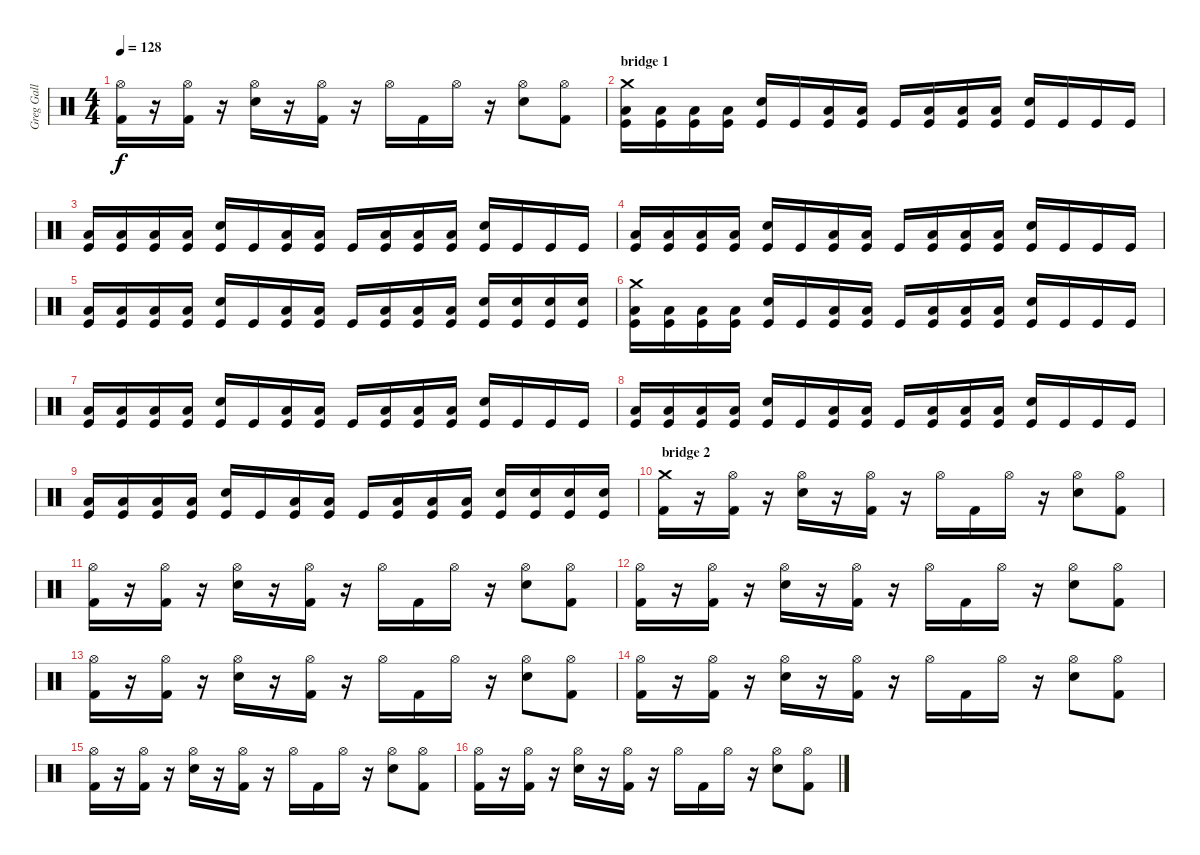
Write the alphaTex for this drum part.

\track ("Greg Gall" "Greg Gall") {instrument percussion}
\staff {score}
\articulation defaults
\ts (4 4)
\tempo 128
\clef neutral
\ks c
("Hi-Hat (open)" "Kick (hit) 2").16{dy f} r.16 ("Hi-Hat (open)" "Kick (hit) 2").16 r.16 ("Hi-Hat (open)" "Electric Snare (hit)").16 r.16 ("Hi-Hat (open)" "Kick (hit) 2").16 r.16 "Hi-Hat (open)".16 "Kick (hit) 2".16 "Hi-Hat (open)".16 r.16 ("Hi-Hat (open)" "Electric Snare (hit)").8 ("Hi-Hat (open)" "Kick (hit) 2").8 |
\section ("" "bridge 1")
("Crash medium (hit)" "Low Tom (hit)" "Kick (hit)").16 ("Low Tom (hit)" "Kick (hit)").16 ("Low Tom (hit)" "Kick (hit)").16 ("Low Tom (hit)" "Kick (hit)").16 ("Electric Snare (hit)" "Kick (hit)").16 "Kick (hit)".16 ("Low Tom (hit)" "Kick (hit)").16 ("Low Tom (hit)" "Kick (hit)").16 "Kick (hit)".16 ("Low Tom (hit)" "Kick (hit)").16 ("Low Tom (hit)" "Kick (hit)").16 ("Low Tom (hit)" "Kick (hit)").16 ("Electric Snare (hit)" "Kick (hit)").16 "Kick (hit)".16 "Kick (hit)".16 "Kick (hit)".16 |
("Low Tom (hit)" "Kick (hit)").16 ("Low Tom (hit)" "Kick (hit)").16 ("Low Tom (hit)" "Kick (hit)").16 ("Low Tom (hit)" "Kick (hit)").16 ("Electric Snare (hit)" "Kick (hit)").16 "Kick (hit)".16 ("Low Tom (hit)" "Kick (hit)").16 ("Low Tom (hit)" "Kick (hit)").16 "Kick (hit)".16 ("Low Tom (hit)" "Kick (hit)").16 ("Low Tom (hit)" "Kick (hit)").16 ("Low Tom (hit)" "Kick (hit)").16 ("Electric Snare (hit)" "Kick (hit)").16 "Kick (hit)".16 "Kick (hit)".16 "Kick (hit)".16 |
("Low Tom (hit)" "Kick (hit)").16 ("Low Tom (hit)" "Kick (hit)").16 ("Low Tom (hit)" "Kick (hit)").16 ("Low Tom (hit)" "Kick (hit)").16 ("Electric Snare (hit)" "Kick (hit)").16 "Kick (hit)".16 ("Low Tom (hit)" "Kick (hit)").16 ("Low Tom (hit)" "Kick (hit)").16 "Kick (hit)".16 ("Low Tom (hit)" "Kick (hit)").16 ("Low Tom (hit)" "Kick (hit)").16 ("Low Tom (hit)" "Kick (hit)").16 ("Electric Snare (hit)" "Kick (hit)").16 "Kick (hit)".16 "Kick (hit)".16 "Kick (hit)".16 |
("Low Tom (hit)" "Kick (hit)").16 ("Low Tom (hit)" "Kick (hit)").16 ("Low Tom (hit)" "Kick (hit)").16 ("Low Tom (hit)" "Kick (hit)").16 ("Electric Snare (hit)" "Kick (hit)").16 "Kick (hit)".16 ("Low Tom (hit)" "Kick (hit)").16 ("Low Tom (hit)" "Kick (hit)").16 "Kick (hit)".16 ("Low Tom (hit)" "Kick (hit)").16 ("Low Tom (hit)" "Kick (hit)").16 ("Low Tom (hit)" "Kick (hit)").16 ("Electric Snare (hit)" "Kick (hit)").16 ("Electric Snare (hit)" "Kick (hit)").16 ("Electric Snare (hit)" "Kick (hit)").16 ("Electric Snare (hit)" "Kick (hit)").16 |
("Crash medium (hit)" "Low Tom (hit)" "Kick (hit)").16 ("Low Tom (hit)" "Kick (hit)").16 ("Low Tom (hit)" "Kick (hit)").16 ("Low Tom (hit)" "Kick (hit)").16 ("Electric Snare (hit)" "Kick (hit)").16 "Kick (hit)".16 ("Low Tom (hit)" "Kick (hit)").16 ("Low Tom (hit)" "Kick (hit)").16 "Kick (hit)".16 ("Low Tom (hit)" "Kick (hit)").16 ("Low Tom (hit)" "Kick (hit)").16 ("Low Tom (hit)" "Kick (hit)").16 ("Electric Snare (hit)" "Kick (hit)").16 "Kick (hit)".16 "Kick (hit)".16 "Kick (hit)".16 |
("Low Tom (hit)" "Kick (hit)").16 ("Low Tom (hit)" "Kick (hit)").16 ("Low Tom (hit)" "Kick (hit)").16 ("Low Tom (hit)" "Kick (hit)").16 ("Electric Snare (hit)" "Kick (hit)").16 "Kick (hit)".16 ("Low Tom (hit)" "Kick (hit)").16 ("Low Tom (hit)" "Kick (hit)").16 "Kick (hit)".16 ("Low Tom (hit)" "Kick (hit)").16 ("Low Tom (hit)" "Kick (hit)").16 ("Low Tom (hit)" "Kick (hit)").16 ("Electric Snare (hit)" "Kick (hit)").16 "Kick (hit)".16 "Kick (hit)".16 "Kick (hit)".16 |
("Low Tom (hit)" "Kick (hit)").16 ("Low Tom (hit)" "Kick (hit)").16 ("Low Tom (hit)" "Kick (hit)").16 ("Low Tom (hit)" "Kick (hit)").16 ("Electric Snare (hit)" "Kick (hit)").16 "Kick (hit)".16 ("Low Tom (hit)" "Kick (hit)").16 ("Low Tom (hit)" "Kick (hit)").16 "Kick (hit)".16 ("Low Tom (hit)" "Kick (hit)").16 ("Low Tom (hit)" "Kick (hit)").16 ("Low Tom (hit)" "Kick (hit)").16 ("Electric Snare (hit)" "Kick (hit)").16 "Kick (hit)".16 "Kick (hit)".16 "Kick (hit)".16 |
("Low Tom (hit)" "Kick (hit)").16 ("Low Tom (hit)" "Kick (hit)").16 ("Low Tom (hit)" "Kick (hit)").16 ("Low Tom (hit)" "Kick (hit)").16 ("Electric Snare (hit)" "Kick (hit)").16 "Kick (hit)".16 ("Low Tom (hit)" "Kick (hit)").16 ("Low Tom (hit)" "Kick (hit)").16 "Kick (hit)".16 ("Low Tom (hit)" "Kick (hit)").16 ("Low Tom (hit)" "Kick (hit)").16 ("Low Tom (hit)" "Kick (hit)").16 ("Electric Snare (hit)" "Kick (hit)").16 ("Electric Snare (hit)" "Kick (hit)").16 ("Electric Snare (hit)" "Kick (hit)").16 ("Electric Snare (hit)" "Kick (hit)").16 |
\section ("" " bridge 2")
("Crash medium (hit)" "Kick (hit) 2").16 r.16 ("Hi-Hat (open)" "Kick (hit) 2").16 r.16 ("Hi-Hat (open)" "Electric Snare (hit)").16 r.16 ("Hi-Hat (open)" "Kick (hit) 2").16 r.16 "Hi-Hat (open)".16 "Kick (hit) 2".16 "Hi-Hat (open)".16 r.16 ("Hi-Hat (open)" "Electric Snare (hit)").8 ("Hi-Hat (open)" "Kick (hit) 2").8 |
("Hi-Hat (open)" "Kick (hit) 2").16 r.16 ("Hi-Hat (open)" "Kick (hit) 2").16 r.16 ("Hi-Hat (open)" "Electric Snare (hit)").16 r.16 ("Hi-Hat (open)" "Kick (hit) 2").16 r.16 "Hi-Hat (open)".16 "Kick (hit) 2".16 "Hi-Hat (open)".16 r.16 ("Hi-Hat (open)" "Electric Snare (hit)").8 ("Hi-Hat (open)" "Kick (hit) 2").8 |
("Hi-Hat (open)" "Kick (hit) 2").16 r.16 ("Hi-Hat (open)" "Kick (hit) 2").16 r.16 ("Hi-Hat (open)" "Electric Snare (hit)").16 r.16 ("Hi-Hat (open)" "Kick (hit) 2").16 r.16 "Hi-Hat (open)".16 "Kick (hit) 2".16 "Hi-Hat (open)".16 r.16 ("Hi-Hat (open)" "Electric Snare (hit)").8 ("Hi-Hat (open)" "Kick (hit) 2").8 |
("Hi-Hat (open)" "Kick (hit) 2").16 r.16 ("Hi-Hat (open)" "Kick (hit) 2").16 r.16 ("Hi-Hat (open)" "Electric Snare (hit)").16 r.16 ("Hi-Hat (open)" "Kick (hit) 2").16 r.16 "Hi-Hat (open)".16 "Kick (hit) 2".16 "Hi-Hat (open)".16 r.16 ("Hi-Hat (open)" "Electric Snare (hit)").8 ("Hi-Hat (open)" "Kick (hit) 2").8 |
("Hi-Hat (open)" "Kick (hit) 2").16 r.16 ("Hi-Hat (open)" "Kick (hit) 2").16 r.16 ("Hi-Hat (open)" "Electric Snare (hit)").16 r.16 ("Hi-Hat (open)" "Kick (hit) 2").16 r.16 "Hi-Hat (open)".16 "Kick (hit) 2".16 "Hi-Hat (open)".16 r.16 ("Hi-Hat (open)" "Electric Snare (hit)").8 ("Hi-Hat (open)" "Kick (hit) 2").8 |
("Hi-Hat (open)" "Kick (hit) 2").16 r.16 ("Hi-Hat (open)" "Kick (hit) 2").16 r.16 ("Hi-Hat (open)" "Electric Snare (hit)").16 r.16 ("Hi-Hat (open)" "Kick (hit) 2").16 r.16 "Hi-Hat (open)".16 "Kick (hit) 2".16 "Hi-Hat (open)".16 r.16 ("Hi-Hat (open)" "Electric Snare (hit)").8 ("Hi-Hat (open)" "Kick (hit) 2").8 |
("Hi-Hat (open)" "Kick (hit) 2").16 r.16 ("Hi-Hat (open)" "Kick (hit) 2").16 r.16 ("Hi-Hat (open)" "Electric Snare (hit)").16 r.16 ("Hi-Hat (open)" "Kick (hit) 2").16 r.16 "Hi-Hat (open)".16 "Kick (hit) 2".16 "Hi-Hat (open)".16 r.16 ("Hi-Hat (open)" "Electric Snare (hit)").8 ("Hi-Hat (open)" "Kick (hit) 2").8
